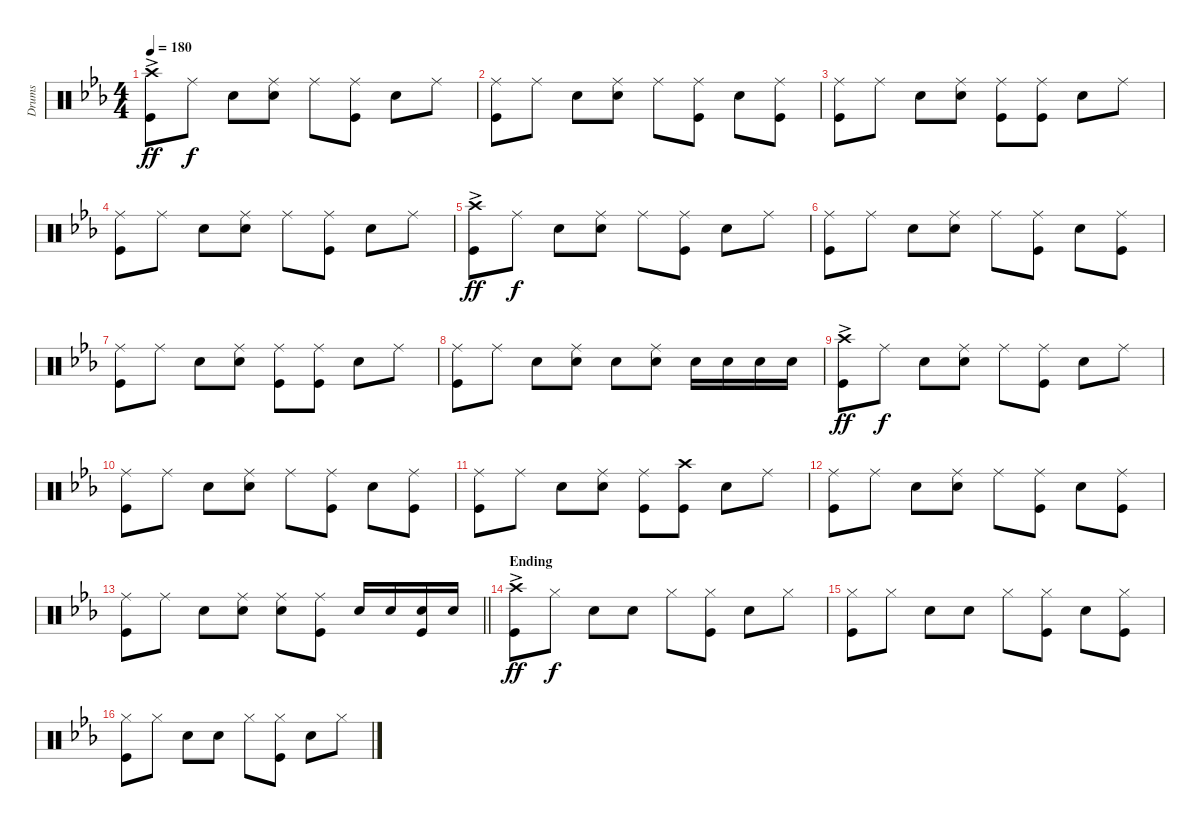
\track ("Drums" "Drums") {instrument percussion}
\staff {score}
\articulation defaults
\ts (4 4)
\tempo 180
\clef neutral
\ks cminor
("Crash high (hit)"{ac} "Kick (hit)").8{dy ff} "Ride (middle)".8{dy f} "Snare (hit) 2".8 ("Snare (hit) 2" "Ride (middle)").8 "Ride (middle)".8 ("Ride (middle)" "Kick (hit)").8 "Snare (hit) 2".8 "Ride (middle)".8 |
("Ride (middle)" "Kick (hit)").8 "Ride (middle)".8 "Snare (hit) 2".8 ("Snare (hit) 2" "Ride (middle)").8 "Ride (middle)".8 ("Ride (middle)" "Kick (hit)").8 "Snare (hit) 2".8 ("Ride (middle)" "Kick (hit)").8 |
("Ride (middle)" "Kick (hit)").8 "Ride (middle)".8 "Snare (hit) 2".8 ("Snare (hit) 2" "Ride (middle)").8 ("Ride (middle)" "Kick (hit)").8 ("Kick (hit)" "Ride (middle)").8 "Snare (hit) 2".8 "Ride (middle)".8 |
("Ride (middle)" "Kick (hit)").8 "Ride (middle)".8 "Snare (hit) 2".8 ("Snare (hit) 2" "Ride (middle)").8 "Ride (middle)".8 ("Ride (middle)" "Kick (hit)").8 "Snare (hit) 2".8 "Ride (middle)".8 |
("Crash high (hit)"{ac} "Kick (hit)").8{dy ff} "Ride (middle)".8{dy f} "Snare (hit) 2".8 ("Snare (hit) 2" "Ride (middle)").8 "Ride (middle)".8 ("Ride (middle)" "Kick (hit)").8 "Snare (hit) 2".8 "Ride (middle)".8 |
("Ride (middle)" "Kick (hit)").8 "Ride (middle)".8 "Snare (hit) 2".8 ("Snare (hit) 2" "Ride (middle)").8 "Ride (middle)".8 ("Ride (middle)" "Kick (hit)").8 "Snare (hit) 2".8 ("Ride (middle)" "Kick (hit)").8 |
("Kick (hit)" "Ride (middle)").8 "Ride (middle)".8 "Snare (hit) 2".8 ("Snare (hit) 2" "Ride (middle)").8 ("Ride (middle)" "Kick (hit)").8 ("Ride (middle)" "Kick (hit)").8 "Snare (hit) 2".8 "Ride (middle)".8 |
("Kick (hit)" "Ride (middle)").8 "Ride (middle)".8 "Snare (hit) 2".8 ("Snare (hit) 2" "Ride (middle)").8 "Snare (hit) 2".8 ("Snare (hit) 2" "Ride (middle)").8 "Snare (hit) 2".16 "Snare (hit) 2".16 "Snare (hit) 2".16 "Snare (hit) 2".16 |
("Crash high (hit)"{ac} "Kick (hit)").8{dy ff} "Ride (middle)".8{dy f} "Snare (hit) 2".8 ("Snare (hit) 2" "Ride (middle)").8 "Ride (middle)".8 ("Ride (middle)" "Kick (hit)").8 "Snare (hit) 2".8 "Ride (middle)".8 |
("Ride (middle)" "Kick (hit)").8 "Ride (middle)".8 "Snare (hit) 2".8 ("Ride (middle)" "Snare (hit) 2").8 "Ride (middle)".8 ("Ride (middle)" "Kick (hit)").8 "Snare (hit) 2".8 ("Ride (middle)" "Kick (hit)").8 |
("Ride (middle)" "Kick (hit)").8 "Ride (middle)".8 "Snare (hit) 2".8 ("Snare (hit) 2" "Ride (middle)").8 ("Ride (middle)" "Kick (hit)").8 ("Kick (hit)" "Crash high (hit)").8 "Snare (hit) 2".8 "Ride (middle)".8 |
("Ride (middle)" "Kick (hit)").8 "Ride (middle)".8 "Snare (hit) 2".8 ("Ride (middle)" "Snare (hit) 2").8 "Ride (middle)".8 ("Ride (middle)" "Kick (hit)").8 "Snare (hit) 2".8 ("Ride (middle)" "Kick (hit)").8 |
\barLineRight lightlight
("Ride (middle)" "Kick (hit)").8 "Ride (middle)".8 "Snare (hit) 2".8 ("Snare (hit) 2" "Ride (middle)").8 ("Ride (middle)" "Snare (hit) 2").8 ("Ride (middle)" "Kick (hit)").8 "Snare (hit) 2".16 "Snare (hit) 2".16 ("Snare (hit) 2" "Kick (hit)").16 "Snare (hit) 2".16 |
\section ("" "Ending")
("Crash high (hit)"{ac} "Kick (hit)").8{dy ff} "Hi-Hat (closed)".8{dy f} "Snare (hit) 2".8 "Snare (hit) 2".8 "Hi-Hat (closed)".8 ("Hi-Hat (closed)" "Kick (hit)").8 "Snare (hit) 2".8 "Hi-Hat (closed)".8 |
("Hi-Hat (closed)" "Kick (hit)").8 "Hi-Hat (closed)".8 "Snare (hit) 2".8 "Snare (hit) 2".8 "Hi-Hat (closed)".8 ("Hi-Hat (closed)" "Kick (hit)").8 "Snare (hit) 2".8 ("Hi-Hat (closed)" "Kick (hit)").8 |
("Kick (hit)" "Hi-Hat (closed)").8 "Hi-Hat (closed)".8 "Snare (hit) 2".8 "Snare (hit) 2".8 "Hi-Hat (closed)".8 ("Kick (hit)" "Hi-Hat (closed)").8 "Snare (hit) 2".8 "Hi-Hat (closed)".8
